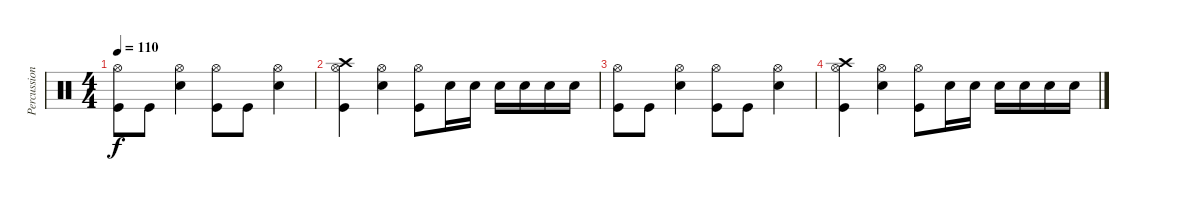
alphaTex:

\track ("Percussion" "Percussion") {instrument percussion}
\staff {score}
\articulation defaults
\ts (4 4)
\tempo 110
\clef neutral
\ks c
("Hi-Hat (open)" "Kick (hit)").8{dy f} "Kick (hit)".8 ("Hi-Hat (open)" "Snare (hit) 2").4 ("Hi-Hat (open)" "Kick (hit)").8 "Kick (hit)".8 ("Hi-Hat (open)" "Snare (hit) 2").4 |
("Kick (hit)" "Hi-Hat (open)" "Crash high (hit)").4 ("Hi-Hat (open)" "Snare (hit) 2").4 ("Hi-Hat (open)" "Kick (hit)").8 "Snare (hit) 2".16 "Snare (hit) 2".16 "Snare (hit) 2".16 "Snare (hit) 2".16 "Snare (hit) 2".16 "Snare (hit) 2".16 |
("Hi-Hat (open)" "Kick (hit)").8 "Kick (hit)".8 ("Hi-Hat (open)" "Snare (hit) 2").4 ("Hi-Hat (open)" "Kick (hit)").8 "Kick (hit)".8 ("Hi-Hat (open)" "Snare (hit) 2").4 |
("Kick (hit)" "Hi-Hat (open)" "Crash high (hit)").4 ("Hi-Hat (open)" "Snare (hit) 2").4 ("Hi-Hat (open)" "Kick (hit)").8 "Snare (hit) 2".16 "Snare (hit) 2".16 "Snare (hit) 2".16 "Snare (hit) 2".16 "Snare (hit) 2".16 "Snare (hit) 2".16
